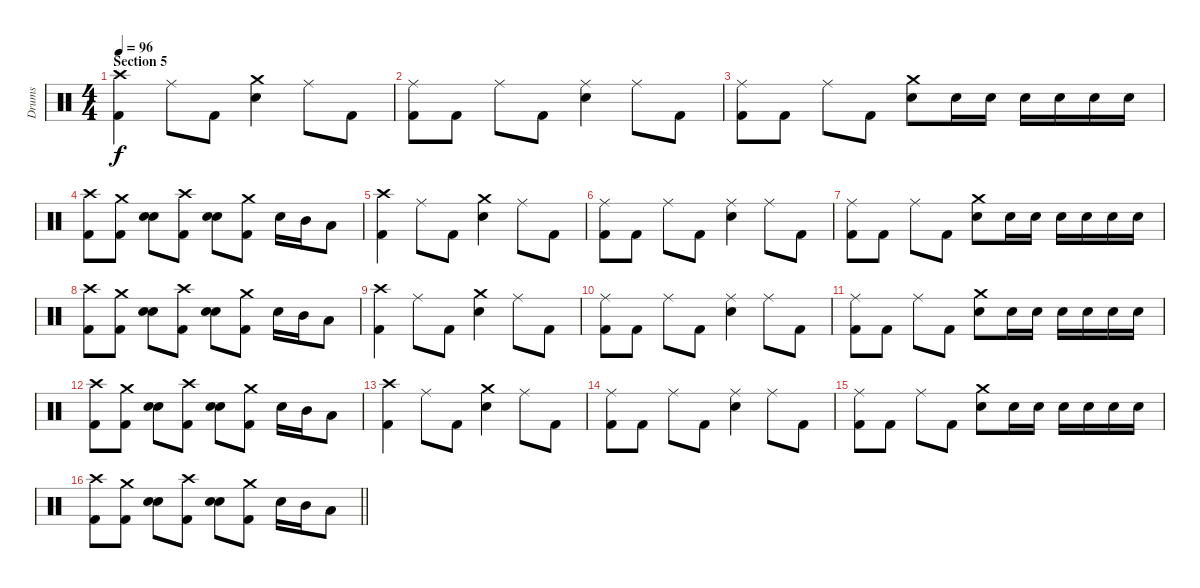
\track ("Drums" "Drums") {instrument percussion}
\staff {score}
\articulation defaults
\ts (4 4)
\section ("" "Section 5")
\tempo 96
\clef neutral
\ks c
("Crash high (hit)" "Kick (hit) 2").4{dy f} "Ride (middle)".8 "Kick (hit) 2".8 ("Crash medium (hit)" "Electric Snare (hit)").4 "Ride (middle)".8 "Kick (hit) 2".8 |
("Ride (middle)" "Kick (hit) 2").8 "Kick (hit) 2".8 "Ride (middle)".8 "Kick (hit) 2".8 ("Ride (middle)" "Electric Snare (hit)").4 "Ride (middle)".8 "Kick (hit) 2".8 |
("Ride (middle)" "Kick (hit) 2").8 "Kick (hit) 2".8 "Ride (middle)".8 "Kick (hit) 2".8 ("Crash medium (hit)" "Electric Snare (hit)").8 "Electric Snare (hit)".16 "Electric Snare (hit)".16 "Electric Snare (hit)".16 "Electric Snare (hit)".16 "Electric Snare (hit)".16 "Electric Snare (hit)".16 |
("Crash high (hit)" "Kick (hit) 2").8 ("Crash medium (hit)" "Kick (hit) 2").8 ("Electric Snare (hit)" "Electric Snare (hit)").8{bu 120} ("Crash high (hit)" "Kick (hit) 2").8 ("Electric Snare (hit)" "Electric Snare (hit)").8{bu 120} ("Crash medium (hit)" "Kick (hit) 2").8 "Electric Snare (hit)".16 "Mid Tom (hit)".16 "Low Tom (hit)".8 |
("Crash high (hit)" "Kick (hit) 2").4 "Ride (middle)".8 "Kick (hit) 2".8 ("Crash medium (hit)" "Electric Snare (hit)").4 "Ride (middle)".8 "Kick (hit) 2".8 |
("Ride (middle)" "Kick (hit) 2").8 "Kick (hit) 2".8 "Ride (middle)".8 "Kick (hit) 2".8 ("Ride (middle)" "Electric Snare (hit)").4 "Ride (middle)".8 "Kick (hit) 2".8 |
("Ride (middle)" "Kick (hit) 2").8 "Kick (hit) 2".8 "Ride (middle)".8 "Kick (hit) 2".8 ("Crash medium (hit)" "Electric Snare (hit)").8 "Electric Snare (hit)".16 "Electric Snare (hit)".16 "Electric Snare (hit)".16 "Electric Snare (hit)".16 "Electric Snare (hit)".16 "Electric Snare (hit)".16 |
("Crash high (hit)" "Kick (hit) 2").8 ("Crash medium (hit)" "Kick (hit) 2").8 ("Electric Snare (hit)" "Electric Snare (hit)").8{bu 120} ("Crash high (hit)" "Kick (hit) 2").8 ("Electric Snare (hit)" "Electric Snare (hit)").8{bu 120} ("Crash medium (hit)" "Kick (hit) 2").8 "Electric Snare (hit)".16 "Mid Tom (hit)".16 "Low Tom (hit)".8 |
("Crash high (hit)" "Kick (hit) 2").4 "Ride (middle)".8 "Kick (hit) 2".8 ("Crash medium (hit)" "Electric Snare (hit)").4 "Ride (middle)".8 "Kick (hit) 2".8 |
("Ride (middle)" "Kick (hit) 2").8 "Kick (hit) 2".8 "Ride (middle)".8 "Kick (hit) 2".8 ("Ride (middle)" "Electric Snare (hit)").4 "Ride (middle)".8 "Kick (hit) 2".8 |
("Ride (middle)" "Kick (hit) 2").8 "Kick (hit) 2".8 "Ride (middle)".8 "Kick (hit) 2".8 ("Crash medium (hit)" "Electric Snare (hit)").8 "Electric Snare (hit)".16 "Electric Snare (hit)".16 "Electric Snare (hit)".16 "Electric Snare (hit)".16 "Electric Snare (hit)".16 "Electric Snare (hit)".16 |
("Crash high (hit)" "Kick (hit) 2").8 ("Crash medium (hit)" "Kick (hit) 2").8 ("Electric Snare (hit)" "Electric Snare (hit)").8{bu 120} ("Crash high (hit)" "Kick (hit) 2").8 ("Electric Snare (hit)" "Electric Snare (hit)").8{bu 120} ("Crash medium (hit)" "Kick (hit) 2").8 "Electric Snare (hit)".16 "Mid Tom (hit)".16 "Low Tom (hit)".8 |
("Crash high (hit)" "Kick (hit) 2").4 "Ride (middle)".8 "Kick (hit) 2".8 ("Crash medium (hit)" "Electric Snare (hit)").4 "Ride (middle)".8 "Kick (hit) 2".8 |
("Ride (middle)" "Kick (hit) 2").8 "Kick (hit) 2".8 "Ride (middle)".8 "Kick (hit) 2".8 ("Ride (middle)" "Electric Snare (hit)").4 "Ride (middle)".8 "Kick (hit) 2".8 |
("Ride (middle)" "Kick (hit) 2").8 "Kick (hit) 2".8 "Ride (middle)".8 "Kick (hit) 2".8 ("Crash medium (hit)" "Electric Snare (hit)").8 "Electric Snare (hit)".16 "Electric Snare (hit)".16 "Electric Snare (hit)".16 "Electric Snare (hit)".16 "Electric Snare (hit)".16 "Electric Snare (hit)".16 |
\barLineRight lightlight
("Crash high (hit)" "Kick (hit) 2").8 ("Crash medium (hit)" "Kick (hit) 2").8 ("Electric Snare (hit)" "Electric Snare (hit)").8{bu 120} ("Crash high (hit)" "Kick (hit) 2").8 ("Electric Snare (hit)" "Electric Snare (hit)").8{bu 120} ("Crash medium (hit)" "Kick (hit) 2").8 "Electric Snare (hit)".16 "Mid Tom (hit)".16 "Low Tom (hit)".8
